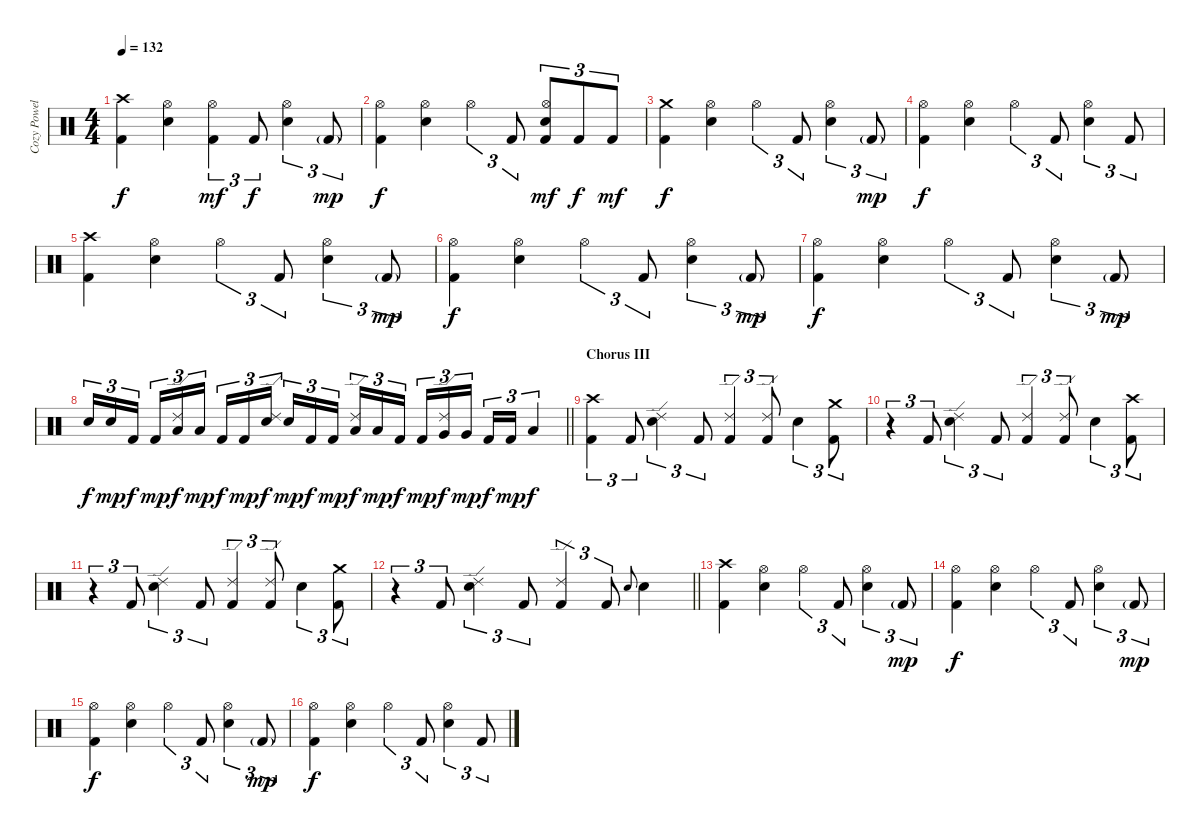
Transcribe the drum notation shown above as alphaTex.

\track ("Cozy Powell" "Cozy Powel") {instrument percussion}
\staff {score}
\articulation defaults
\ts (4 4)
\tempo 132
\clef neutral
\ks c
("Crash high (hit)" "Kick (hit) 2").4{dy f} ("Hi-Hat (open)" "Snare (hit) 2").4 ("Hi-Hat (open)" "Kick (hit) 2").4{tu (3 2) dy mf} "Kick (hit) 2".8{tu (3 2) dy f} ("Hi-Hat (open)" "Snare (hit) 2").4{tu (3 2)} "Kick (hit) 2"{g}.8{tu (3 2) dy mp} |
("Hi-Hat (open)" "Kick (hit) 2").4{dy f} ("Hi-Hat (open)" "Snare (hit) 2").4 "Hi-Hat (open)".4{tu (3 2)} "Kick (hit) 2".8{tu (3 2)} ("Hi-Hat (open)" "Snare (hit) 2" "Kick (hit) 2").8{tu (3 2) dy mf} "Kick (hit) 2".8{tu (3 2) dy f} "Kick (hit) 2".8{tu (3 2) dy mf} |
("Crash medium (hit)" "Kick (hit) 2").4{dy f} ("Hi-Hat (open)" "Snare (hit) 2").4 "Hi-Hat (open)".4{tu (3 2)} "Kick (hit) 2".8{tu (3 2)} ("Hi-Hat (open)" "Snare (hit) 2").4{tu (3 2)} "Kick (hit) 2"{g}.8{tu (3 2) dy mp} |
("Hi-Hat (open)" "Kick (hit) 2").4{dy f} ("Hi-Hat (open)" "Snare (hit) 2").4 "Hi-Hat (open)".4{tu (3 2)} "Kick (hit) 2".8{tu (3 2)} ("Hi-Hat (open)" "Snare (hit) 2").4{tu (3 2)} "Kick (hit) 2".8{tu (3 2)} |
("Crash high (hit)" "Kick (hit) 2").4 ("Hi-Hat (open)" "Snare (hit) 2").4 "Hi-Hat (open)".4{tu (3 2)} "Kick (hit) 2".8{tu (3 2)} ("Hi-Hat (open)" "Snare (hit) 2").4{tu (3 2)} "Kick (hit) 2"{g}.8{tu (3 2) dy mp} |
("Hi-Hat (open)" "Kick (hit) 2").4{dy f} ("Hi-Hat (open)" "Snare (hit) 2").4 "Hi-Hat (open)".4{tu (3 2)} "Kick (hit) 2".8{tu (3 2)} ("Hi-Hat (open)" "Snare (hit) 2").4{tu (3 2)} "Kick (hit) 2"{g}.8{tu (3 2) dy mp} |
("Hi-Hat (open)" "Kick (hit) 2").4{dy f} ("Hi-Hat (open)" "Snare (hit) 2").4 "Hi-Hat (open)".4{tu (3 2)} "Kick (hit) 2".8{tu (3 2)} ("Hi-Hat (open)" "Snare (hit) 2").4{tu (3 2)} "Kick (hit) 2"{g}.8{tu (3 2) dy mp} |
\barLineRight lightlight "Snare (hit) 2".16{tu (3 2) dy f} "Snare (hit) 2".16{tu (3 2) dy mp} "Kick (hit) 2".16{tu (3 2) dy f beam splitsecondary} "Kick (hit) 2".16{tu (3 2) dy mp}
("Ride (edge) 2" "Low Tom (hit)").16{tu (3 2) dy f} "Low Tom (hit)".16{tu (3 2) dy mp} "Kick (hit) 2".16{tu (3 2) dy f} "Kick (hit) 2".16{tu (3 2) dy mp} ("Ride (edge) 2" "Snare (hit) 2").16{tu (3 2) dy f beam splitsecondary} "Snare (hit) 2".16{tu (3 2) dy mp} "Kick (hit) 2".16{tu (3 2) dy f} "Kick (hit) 2".16{tu (3 2) dy mp} ("Ride (edge) 2" "Low Tom (hit)").16{tu (3 2) dy f} "Low Tom (hit)".16{tu (3 2) dy mp} "Kick (hit) 2".16{tu (3 2) dy f beam splitsecondary} "Kick (hit) 2".16{tu (3 2) dy mp} ("Ride (edge) 2" "Very Low Tom (hit)").16{tu (3 2) dy f} "Very Low Tom (hit)".16{tu (3 2) dy mp} "Kick (hit) 2".16{tu (3 2) dy f} "Kick (hit) 2".16{tu (3 2) dy mp} "Low Floor Tom (hit)".4{tu (3 2) dy f} |
\section ("" "Chorus III")
("Crash high (hit)" "Kick (hit) 2").4{tu (3 2)} "Kick (hit) 2".8{tu (3 2)} ("Ride (edge) 2" "Snare (hit) 2").4{tu (3 2)} "Kick (hit) 2".8{tu (3 2)} ("Ride (edge) 2" "Kick (hit) 2").4{tu (3 2)} ("Ride (edge) 2" "Kick (hit) 2").8{tu (3 2)} "Snare (hit) 2".4{tu (3 2)} ("Crash medium (hit)" "Kick (hit) 2").8{tu (3 2)} |
r.4{tu (3 2)} "Kick (hit) 2".8{tu (3 2)} ("Ride (edge) 2" "Snare (hit) 2").4{tu (3 2)} "Kick (hit) 2".8{tu (3 2)} ("Ride (edge) 2" "Kick (hit) 2").4{tu (3 2)} ("Ride (edge) 2" "Kick (hit) 2").8{tu (3 2)} "Snare (hit) 2".4{tu (3 2)} ("Crash high (hit)" "Kick (hit) 2").8{tu (3 2)} |
r.4{tu (3 2)} "Kick (hit) 2".8{tu (3 2)} ("Ride (edge) 2" "Snare (hit) 2").4{tu (3 2)} "Kick (hit) 2".8{tu (3 2)} ("Ride (edge) 2" "Kick (hit) 2").4{tu (3 2)} ("Ride (edge) 2" "Kick (hit) 2").8{tu (3 2)} "Snare (hit) 2".4{tu (3 2)} ("Crash medium (hit)" "Kick (hit) 2").8{tu (3 2)} |
\barLineRight lightlight
r.4{tu (3 2)} "Kick (hit) 2".8{tu (3 2)} ("Ride (edge) 2" "Snare (hit) 2").4{tu (3 2)} "Kick (hit) 2".8{tu (3 2)} ("Ride (edge) 2" "Kick (hit) 2").4{tu (3 2)} "Kick (hit) 2".8{tu (3 2)} "Snare (hit) 2".8{gr onbeat} "Snare (hit) 2".4 |
\section ("" "")
("Crash high (hit)" "Kick (hit) 2").4 ("Hi-Hat (open)" "Snare (hit) 2").4 "Hi-Hat (open)".4{tu (3 2)} "Kick (hit) 2".8{tu (3 2)} ("Hi-Hat (open)" "Snare (hit) 2").4{tu (3 2)} "Kick (hit) 2"{g}.8{tu (3 2) dy mp} |
("Hi-Hat (open)" "Kick (hit) 2").4{dy f} ("Hi-Hat (open)" "Snare (hit) 2").4 "Hi-Hat (open)".4{tu (3 2)} "Kick (hit) 2".8{tu (3 2)} ("Hi-Hat (open)" "Snare (hit) 2").4{tu (3 2)} "Kick (hit) 2"{g}.8{tu (3 2) dy mp} |
("Hi-Hat (open)" "Kick (hit) 2").4{dy f} ("Hi-Hat (open)" "Snare (hit) 2").4 "Hi-Hat (open)".4{tu (3 2)} "Kick (hit) 2".8{tu (3 2)} ("Hi-Hat (open)" "Snare (hit) 2").4{tu (3 2)} "Kick (hit) 2"{g}.8{tu (3 2) dy mp} |
("Hi-Hat (open)" "Kick (hit) 2").4{dy f} ("Hi-Hat (open)" "Snare (hit) 2").4 "Hi-Hat (open)".4{tu (3 2)} "Kick (hit) 2".8{tu (3 2)} ("Hi-Hat (open)" "Snare (hit) 2").4{tu (3 2)} "Kick (hit) 2".8{tu (3 2)}
